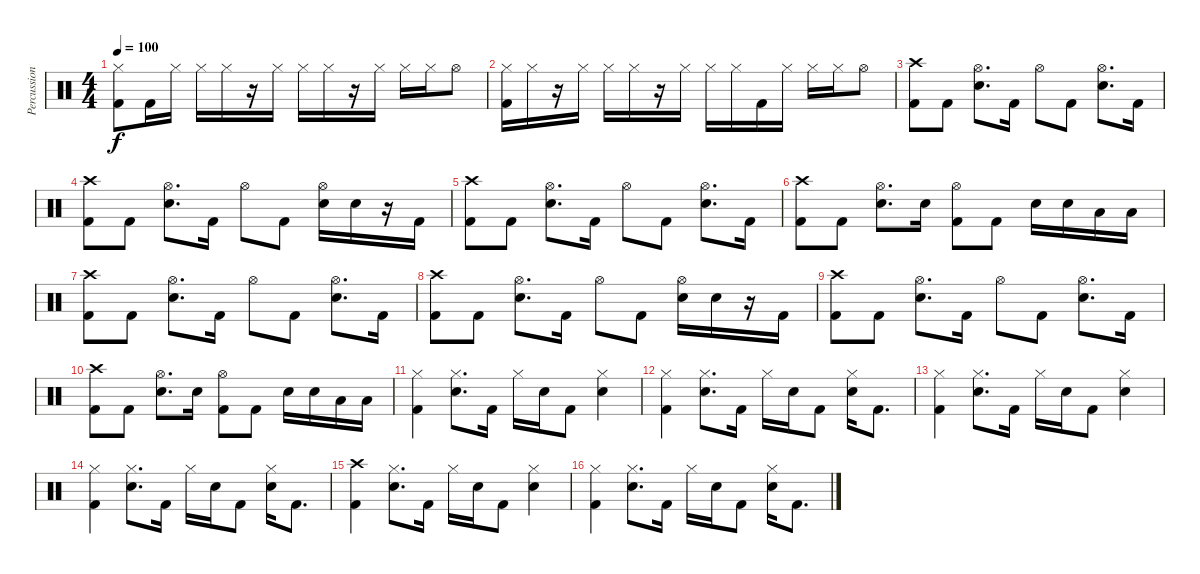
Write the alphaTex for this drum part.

\track ("Percussion" "Percussion") {instrument percussion}
\staff {score}
\articulation defaults
\ts (4 4)
\tempo 100
\clef neutral
\ks c
("Kick (hit) 2" "Hi-Hat (closed)").8{dy f} "Kick (hit) 2".16 "Hi-Hat (closed)".16 "Hi-Hat (closed)".16 "Hi-Hat (closed)".16 r.16 "Hi-Hat (closed)".16 "Hi-Hat (closed)".16 "Hi-Hat (closed)".16 r.16 "Hi-Hat (closed)".16 "Hi-Hat (closed)".16 "Hi-Hat (closed)".16 "Hi-Hat (open)".8 |
("Kick (hit) 2" "Hi-Hat (closed)").16 "Hi-Hat (closed)".16 r.16 "Hi-Hat (closed)".16 "Hi-Hat (closed)".16 "Hi-Hat (closed)".16 r.16 "Hi-Hat (closed)".16 "Hi-Hat (closed)".16 "Hi-Hat (closed)".16 "Kick (hit) 2".16 "Hi-Hat (closed)".16 "Hi-Hat (closed)".16 "Hi-Hat (closed)".16 "Hi-Hat (open)".8 |
("Kick (hit) 2" "Crash high (hit)").8{volume 8} "Kick (hit) 2".8 ("Electric Snare (hit)" "Hi-Hat (open)").8{d} "Kick (hit) 2".16 "Hi-Hat (open)".8 "Kick (hit) 2".8 ("Hi-Hat (open)" "Electric Snare (hit)").8{d} "Kick (hit) 2".16 |
("Crash high (hit)" "Kick (hit) 2").8 "Kick (hit) 2".8 ("Hi-Hat (open)" "Electric Snare (hit)").8{d} "Kick (hit) 2".16 "Hi-Hat (open)".8 "Kick (hit) 2".8 ("Hi-Hat (open)" "Electric Snare (hit)").16 "Electric Snare (hit)".16 r.16 "Kick (hit) 2".16 |
("Kick (hit) 2" "Crash high (hit)").8 "Kick (hit) 2".8 ("Electric Snare (hit)" "Hi-Hat (open)").8{d} "Kick (hit) 2".16 "Hi-Hat (open)".8 "Kick (hit) 2".8 ("Hi-Hat (open)" "Electric Snare (hit)").8{d} "Kick (hit) 2".16 |
("Kick (hit) 2" "Crash high (hit)").8 "Kick (hit) 2".8 ("Hi-Hat (open)" "Electric Snare (hit)").8{d} "Electric Snare (hit)".16 ("Kick (hit) 2" "Hi-Hat (open)").8 "Kick (hit) 2".8 "Electric Snare (hit)".16 "Electric Snare (hit)".16 "Low Tom (hit)".16 "Low Tom (hit)".16 |
("Kick (hit) 2" "Crash high (hit)").8 "Kick (hit) 2".8 ("Electric Snare (hit)" "Hi-Hat (open)").8{d} "Kick (hit) 2".16 "Hi-Hat (open)".8 "Kick (hit) 2".8 ("Hi-Hat (open)" "Electric Snare (hit)").8{d} "Kick (hit) 2".16 |
("Crash high (hit)" "Kick (hit) 2").8 "Kick (hit) 2".8 ("Hi-Hat (open)" "Electric Snare (hit)").8{d} "Kick (hit) 2".16 "Hi-Hat (open)".8 "Kick (hit) 2".8 ("Hi-Hat (open)" "Electric Snare (hit)").16 "Electric Snare (hit)".16 r.16 "Kick (hit) 2".16 |
("Kick (hit) 2" "Crash high (hit)").8 "Kick (hit) 2".8 ("Electric Snare (hit)" "Hi-Hat (open)").8{d} "Kick (hit) 2".16 "Hi-Hat (open)".8 "Kick (hit) 2".8 ("Hi-Hat (open)" "Electric Snare (hit)").8{d} "Kick (hit) 2".16 |
("Kick (hit) 2" "Crash high (hit)").8 "Kick (hit) 2".8 ("Hi-Hat (open)" "Electric Snare (hit)").8{d} "Electric Snare (hit)".16 ("Kick (hit) 2" "Hi-Hat (open)").8 "Kick (hit) 2".8 "Electric Snare (hit)".16 "Electric Snare (hit)".16 "Low Tom (hit)".16 "Low Tom (hit)".16 |
("Hi-Hat (closed)" "Kick (hit) 2").4 ("Hi-Hat (closed)" "Electric Snare (hit)").8{d} "Kick (hit) 2".16 "Hi-Hat (closed)".16 "Electric Snare (hit)".16 "Kick (hit) 2".8 ("Electric Snare (hit)" "Hi-Hat (closed)").4 |
("Hi-Hat (closed)" "Kick (hit) 2").4 ("Hi-Hat (closed)" "Electric Snare (hit)").8{d} "Kick (hit) 2".16 "Hi-Hat (closed)".16 "Electric Snare (hit)".16 "Kick (hit) 2".8 ("Hi-Hat (closed)" "Electric Snare (hit)").16 "Kick (hit) 2".8{d} |
("Hi-Hat (closed)" "Kick (hit) 2").4 ("Hi-Hat (closed)" "Electric Snare (hit)").8{d} "Kick (hit) 2".16 "Hi-Hat (closed)".16 "Electric Snare (hit)".16 "Kick (hit) 2".8 ("Electric Snare (hit)" "Hi-Hat (closed)").4 |
("Hi-Hat (closed)" "Kick (hit) 2").4 ("Hi-Hat (closed)" "Electric Snare (hit)").8{d} "Kick (hit) 2".16 "Hi-Hat (closed)".16 "Electric Snare (hit)".16 "Kick (hit) 2".8 ("Hi-Hat (closed)" "Electric Snare (hit)").16 "Kick (hit) 2".8{d} |
("Crash high (hit)" "Kick (hit) 2").4 ("Hi-Hat (closed)" "Electric Snare (hit)").8{d} "Kick (hit) 2".16 "Hi-Hat (closed)".16 "Electric Snare (hit)".16 "Kick (hit) 2".8 ("Electric Snare (hit)" "Hi-Hat (closed)").4 |
("Hi-Hat (closed)" "Kick (hit) 2").4 ("Hi-Hat (closed)" "Electric Snare (hit)").8{d} "Kick (hit) 2".16 "Hi-Hat (closed)".16 "Electric Snare (hit)".16 "Kick (hit) 2".8 ("Hi-Hat (closed)" "Electric Snare (hit)").16 "Kick (hit) 2".8{d}
